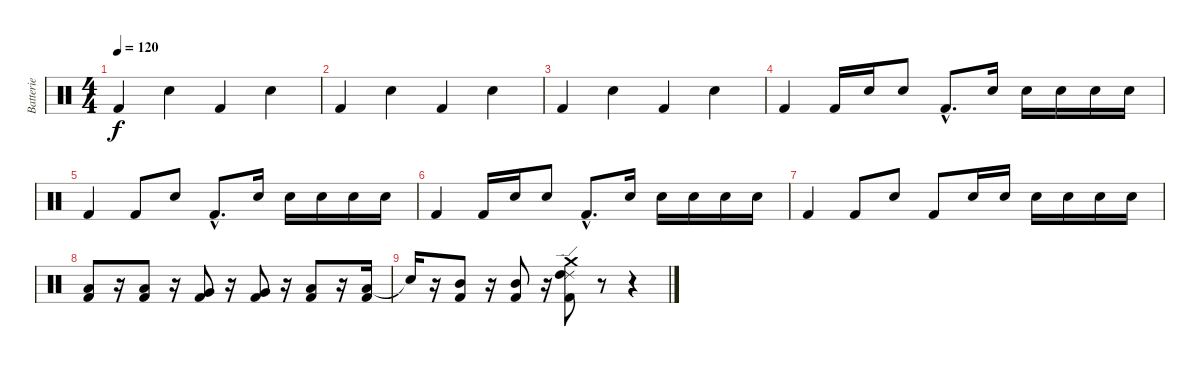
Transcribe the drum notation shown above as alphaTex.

\track ("Batterie" "Batterie") {instrument percussion}
\staff {score}
\articulation defaults
\ts (4 4)
\tempo 120
\clef neutral
\ks c "Kick (hit) 2".4{dy f} "Electric Snare (hit)".4 "Kick (hit) 2".4 "Electric Snare (hit)".4
|
"Kick (hit) 2".4 "Electric Snare (hit)".4 "Kick (hit) 2".4 "Electric Snare (hit)".4 |
"Kick (hit) 2".4 "Electric Snare (hit)".4 "Kick (hit) 2".4 "Electric Snare (hit)".4 |
"Kick (hit) 2".4 "Kick (hit) 2".16 "Electric Snare (hit)".16 "Electric Snare (hit)".8 "Kick (hit) 2"{hac}.8{d} "Electric Snare (hit)".16 "Electric Snare (hit)".16 "Electric Snare (hit)".16 "Electric Snare (hit)".16 "Electric Snare (hit)".16 |
"Kick (hit) 2".4 "Kick (hit) 2".8 "Electric Snare (hit)".8 "Kick (hit) 2"{hac}.8{d} "Electric Snare (hit)".16 "Electric Snare (hit)".16 "Electric Snare (hit)".16 "Electric Snare (hit)".16 "Electric Snare (hit)".16 |
"Kick (hit) 2".4 "Kick (hit) 2".16 "Electric Snare (hit)".16 "Electric Snare (hit)".8 "Kick (hit) 2"{hac}.8{d} "Electric Snare (hit)".16 "Electric Snare (hit)".16 "Electric Snare (hit)".16 "Electric Snare (hit)".16 "Electric Snare (hit)".16 |
"Kick (hit) 2".4 "Kick (hit) 2".8 "Electric Snare (hit)".8 "Kick (hit) 2".8 "Electric Snare (hit)".16 "Electric Snare (hit)".16 "Electric Snare (hit)".16 "Electric Snare (hit)".16 "Electric Snare (hit)".16 "Electric Snare (hit)".16 |
("Low Floor Tom (hit)" "Kick (hit) 2").8 r.16 ("Low Floor Tom (hit)" "Kick (hit) 2").8 r.16 ("Very Low Tom (hit)" "Kick (hit) 2").8 r.16 ("Very Low Tom (hit)" "Kick (hit) 2").8 r.16 ("Low Tom (hit)" "Kick (hit) 2").8 r.16 ("Low Tom (hit)" "Kick (hit) 2").16 |
"Snare (hit)"{t}.16 r.16 ("Mid Tom (hit)" "Kick (hit) 2").8 r.16 ("Mid Tom (hit)" "Kick (hit) 2").8 r.16 ("Ride (edge) 2" "High Tom (hit)" "Crash medium (hit)" "Kick (hit) 2").8 r.8 r.4
